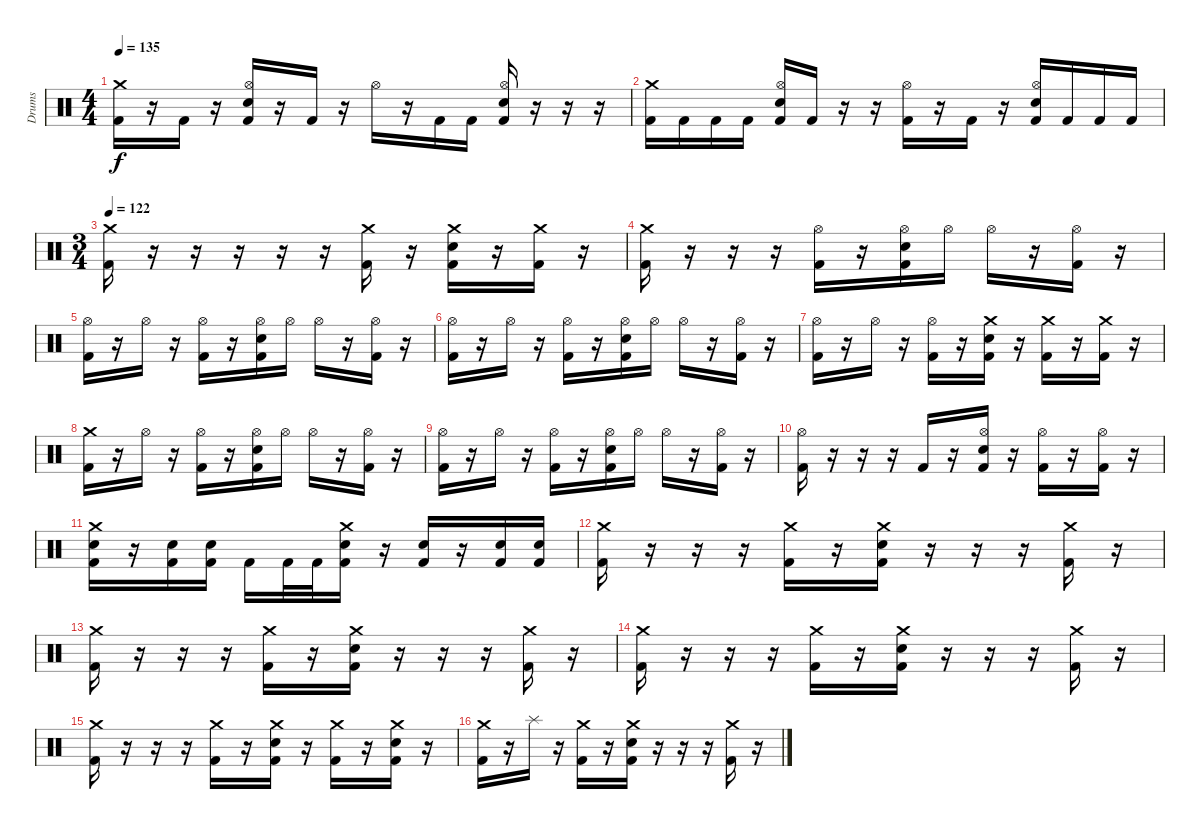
\track ("Drums" "Drums") {instrument percussion}
\staff {score}
\articulation defaults
\ts (4 4)
\tempo 135
\clef neutral
\ks c
("Crash medium (hit)" "Kick (hit) 2").16{dy f} r.16 "Kick (hit) 2".16 r.16 ("Hi-Hat (open)" "Electric Snare (hit)" "Kick (hit) 2").16 r.16 "Kick (hit) 2".16 r.16 "Hi-Hat (open)".16 r.16 "Kick (hit) 2".16 "Kick (hit) 2".16 ("Hi-Hat (open)" "Electric Snare (hit)" "Kick (hit) 2").16 r.16 r.16 r.16 |
("Crash medium (hit)" "Kick (hit) 2").16 "Kick (hit) 2".16 "Kick (hit) 2".16 "Kick (hit) 2".16 ("Hi-Hat (open)" "Electric Snare (hit)" "Kick (hit) 2").16 "Kick (hit) 2".16 r.16 r.16 ("Hi-Hat (open)" "Kick (hit) 2").16 r.16 "Kick (hit) 2".16 r.16 ("Hi-Hat (open)" "Electric Snare (hit)" "Kick (hit) 2").16 "Kick (hit) 2".16 "Kick (hit) 2".16 "Kick (hit) 2".16 |
\ts (3 4)
\section ("" "")
\tempo 122
("Crash medium (hit)" "Kick (hit) 2").16 r.16 r.16{volume 0} r.16 r.16 r.16 ("Crash medium (hit)" "Kick (hit) 2").16{volume 16} r.16 ("Crash medium (hit)" "Electric Snare (hit)" "Kick (hit) 2").16 r.16 ("Crash medium (hit)" "Kick (hit) 2").16 r.16 |
("Crash medium (hit)" "Kick (hit) 2").16 r.16 r.16 r.16 ("Hi-Hat (open)" "Kick (hit) 2").16 r.16 ("Hi-Hat (open)" "Electric Snare (hit)" "Kick (hit) 2").16 "Hi-Hat (open)".16 "Hi-Hat (open)".16 r.16 ("Hi-Hat (open)" "Kick (hit) 2").16 r.16 |
("Hi-Hat (open)" "Kick (hit) 2").16 r.16 "Hi-Hat (open)".16 r.16 ("Hi-Hat (open)" "Kick (hit) 2").16 r.16 ("Hi-Hat (open)" "Electric Snare (hit)" "Kick (hit) 2").16 "Hi-Hat (open)".16 "Hi-Hat (open)".16 r.16 ("Hi-Hat (open)" "Kick (hit) 2").16 r.16 |
("Hi-Hat (open)" "Kick (hit) 2").16 r.16 "Hi-Hat (open)".16 r.16 ("Hi-Hat (open)" "Kick (hit) 2").16 r.16 ("Hi-Hat (open)" "Electric Snare (hit)" "Kick (hit) 2").16 "Hi-Hat (open)".16 "Hi-Hat (open)".16 r.16 ("Hi-Hat (open)" "Kick (hit) 2").16 r.16 |
("Hi-Hat (open)" "Kick (hit) 2").16 r.16 "Hi-Hat (open)".16 r.16 ("Hi-Hat (open)" "Kick (hit) 2").16 r.16 ("Crash medium (hit)" "Electric Snare (hit)" "Kick (hit) 2").16 r.16 ("Crash medium (hit)" "Kick (hit) 2").16 r.16 ("Crash medium (hit)" "Kick (hit) 2").16 r.16 |
("Crash medium (hit)" "Kick (hit) 2").16 r.16 "Hi-Hat (open)".16 r.16 ("Hi-Hat (open)" "Kick (hit) 2").16 r.16 ("Hi-Hat (open)" "Electric Snare (hit)" "Kick (hit) 2").16 "Hi-Hat (open)".16 "Hi-Hat (open)".16 r.16 ("Hi-Hat (open)" "Kick (hit) 2").16 r.16 |
("Hi-Hat (open)" "Kick (hit) 2").16 r.16 "Hi-Hat (open)".16 r.16 ("Hi-Hat (open)" "Kick (hit) 2").16 r.16 ("Hi-Hat (open)" "Electric Snare (hit)" "Kick (hit) 2").16 "Hi-Hat (open)".16 "Hi-Hat (open)".16 r.16 ("Hi-Hat (open)" "Kick (hit) 2").16 r.16 |
("Hi-Hat (open)" "Kick (hit) 2").16 r.16 r.16 r.16 "Kick (hit) 2".16 r.16 ("Hi-Hat (open)" "Electric Snare (hit)" "Kick (hit) 2").16 r.16 ("Hi-Hat (open)" "Kick (hit) 2").16 r.16 ("Hi-Hat (open)" "Kick (hit) 2").16 r.16 |
("Crash medium (hit)" "Electric Snare (hit)" "Kick (hit) 2").16 r.16 ("Electric Snare (hit)" "Kick (hit) 2").16 ("Electric Snare (hit)" "Kick (hit) 2").16 "Kick (hit) 2".16 "Kick (hit) 2".32 "Kick (hit) 2".32 ("Crash medium (hit)" "Electric Snare (hit)" "Kick (hit) 2").16 r.16 ("Electric Snare (hit)" "Kick (hit) 2").16 r.16 ("Electric Snare (hit)" "Kick (hit) 2").16 ("Electric Snare (hit)" "Kick (hit) 2").16 |
("Crash medium (hit)" "Kick (hit) 2").16 r.16 r.16 r.16 ("Crash medium (hit)" "Kick (hit) 2").16 r.16 ("Crash medium (hit)" "Electric Snare (hit)" "Kick (hit) 2").16 r.16 r.16 r.16 ("Crash medium (hit)" "Kick (hit) 2").16 r.16 |
("Crash medium (hit)" "Kick (hit) 2").16 r.16 r.16 r.16 ("Crash medium (hit)" "Kick (hit) 2").16 r.16 ("Crash medium (hit)" "Electric Snare (hit)" "Kick (hit) 2").16 r.16 r.16 r.16 ("Crash medium (hit)" "Kick (hit) 2").16 r.16 |
("Crash medium (hit)" "Kick (hit) 2").16 r.16 r.16 r.16 ("Crash medium (hit)" "Kick (hit) 2").16 r.16 ("Crash medium (hit)" "Electric Snare (hit)" "Kick (hit) 2").16 r.16 r.16 r.16 ("Crash medium (hit)" "Kick (hit) 2").16 r.16 |
("Crash medium (hit)" "Kick (hit) 2").16 r.16 r.16 r.16 ("Crash medium (hit)" "Kick (hit) 2").16 r.16 ("Crash medium (hit)" "Electric Snare (hit)" "Kick (hit) 2").16 r.16 ("Crash medium (hit)" "Kick (hit) 2").16 r.16 ("Crash medium (hit)" "Electric Snare (hit)" "Kick (hit) 2").16 r.16 |
("Crash medium (hit)" "Kick (hit) 2").16 r.16 "Splash (hit)".16 r.16 ("Crash medium (hit)" "Kick (hit) 2").16 r.16 ("Crash medium (hit)" "Electric Snare (hit)" "Kick (hit) 2").16 r.16 r.16 r.16 ("Crash medium (hit)" "Kick (hit) 2").16 r.16
